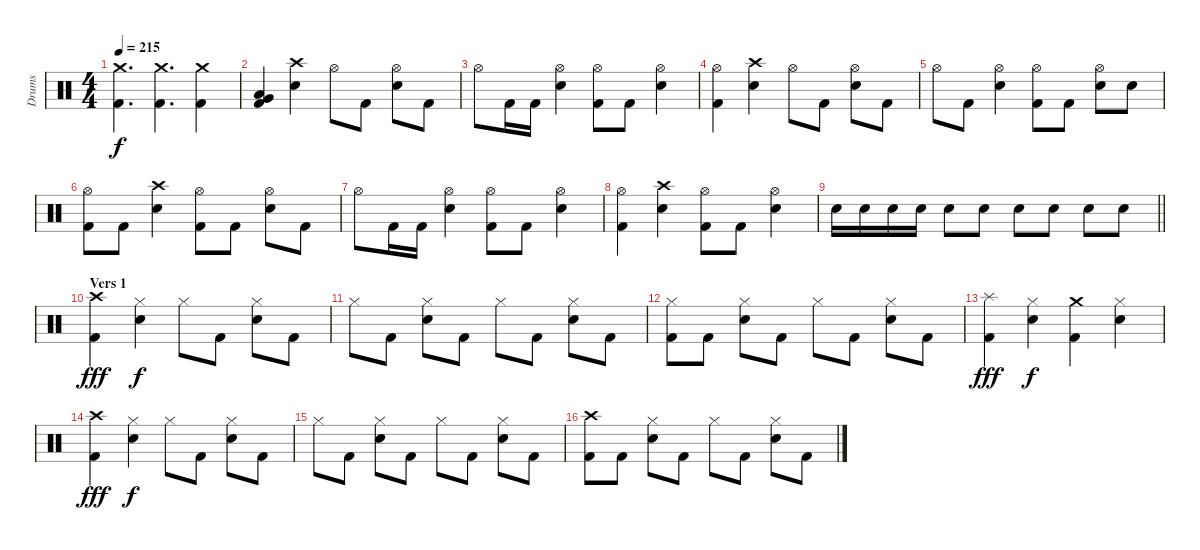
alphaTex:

\track ("Drums" "Drums") {instrument percussion}
\staff {score}
\articulation defaults
\ts (4 4)
\tempo 215
\clef neutral
\ks c
("Crash medium (hit)" "Kick (hit) 2").4{d dy f} ("Crash medium (hit)" "Kick (hit) 2").4{d} ("Crash medium (hit)" "Kick (hit) 2").4 |
("Low Floor Tom (hit)" "Very Low Tom (hit)" "Kick (hit) 2").4 ("Crash high (hit)" "Snare (hit) 2").4 "Hi-Hat (open)".8 "Kick (hit) 2".8 ("Hi-Hat (open)" "Snare (hit) 2").8 "Kick (hit) 2".8 |
"Hi-Hat (open)".8 "Kick (hit) 2".16 "Kick (hit) 2".16 ("Hi-Hat (open)" "Snare (hit) 2").4 ("Hi-Hat (open)" "Kick (hit) 2").8 "Kick (hit) 2".8 ("Hi-Hat (open)" "Snare (hit) 2").4 |
("Hi-Hat (open)" "Kick (hit) 2").4 ("Crash high (hit)" "Snare (hit) 2").4 "Hi-Hat (open)".8 "Kick (hit) 2".8 ("Hi-Hat (open)" "Snare (hit) 2").8 "Kick (hit) 2".8 |
"Hi-Hat (open)".8 "Kick (hit) 2".8 ("Hi-Hat (open)" "Snare (hit) 2").4 ("Hi-Hat (open)" "Kick (hit) 2").8 "Kick (hit) 2".8 ("Hi-Hat (open)" "Snare (hit) 2").8 "Snare (hit) 2".8 |
("Hi-Hat (open)" "Kick (hit) 2").8 "Kick (hit) 2".8 ("Crash high (hit)" "Snare (hit) 2").4 ("Hi-Hat (open)" "Kick (hit) 2").8 "Kick (hit) 2".8 ("Hi-Hat (open)" "Snare (hit) 2").8 "Kick (hit) 2".8 |
"Hi-Hat (open)".8 "Kick (hit) 2".16 "Kick (hit) 2".16 ("Hi-Hat (open)" "Snare (hit) 2").4 ("Hi-Hat (open)" "Kick (hit) 2").8 "Kick (hit) 2".8 ("Hi-Hat (open)" "Snare (hit) 2").4 |
("Hi-Hat (open)" "Kick (hit) 2").4 ("Crash high (hit)" "Snare (hit) 2").4 ("Hi-Hat (open)" "Kick (hit) 2").8 "Kick (hit) 2".8 ("Hi-Hat (open)" "Snare (hit) 2").4 |
\barLineRight lightlight "Snare (hit) 2".16 "Snare (hit) 2".16 "Snare (hit) 2".16 "Snare (hit) 2".16 "Snare (hit) 2".8 "Snare (hit) 2".8 "Snare (hit) 2".8 "Snare (hit) 2".8 "Snare (hit) 2".8 "Snare (hit) 2".8
|
\section ("" "Vers 1")
("Crash high (hit)" "Kick (hit) 2").4{dy fff} ("Hi-Hat (closed)" "Snare (hit) 2").4{dy f} "Hi-Hat (closed)".8 "Kick (hit) 2".8 ("Hi-Hat (closed)" "Snare (hit) 2").8 "Kick (hit) 2".8 |
"Hi-Hat (closed)".8 "Kick (hit) 2".8 ("Hi-Hat (closed)" "Snare (hit) 2").8 "Kick (hit) 2".8 "Hi-Hat (closed)".8 "Kick (hit) 2".8 ("Hi-Hat (closed)" "Snare (hit) 2").8 "Kick (hit) 2".8 |
("Hi-Hat (closed)" "Kick (hit) 2").8 "Kick (hit) 2".8 ("Hi-Hat (closed)" "Snare (hit) 2").8 "Kick (hit) 2".8 "Hi-Hat (closed)".8 "Kick (hit) 2".8 ("Hi-Hat (closed)" "Snare (hit) 2").8 "Kick (hit) 2".8 |
("Splash (hit)" "Kick (hit) 2").4{dy fff} ("Hi-Hat (closed)" "Snare (hit) 2").4{dy f} ("Crash medium (hit)" "Kick (hit) 2").4 ("Hi-Hat (closed)" "Snare (hit) 2").4 |
("Crash high (hit)" "Kick (hit) 2").4{dy fff} ("Hi-Hat (closed)" "Snare (hit) 2").4{dy f} "Hi-Hat (closed)".8 "Kick (hit) 2".8 ("Hi-Hat (closed)" "Snare (hit) 2").8 "Kick (hit) 2".8 |
"Hi-Hat (closed)".8 "Kick (hit) 2".8 ("Hi-Hat (closed)" "Snare (hit) 2").8 "Kick (hit) 2".8 "Hi-Hat (closed)".8 "Kick (hit) 2".8 ("Hi-Hat (closed)" "Snare (hit) 2").8 "Kick (hit) 2".8 |
("Crash high (hit)" "Kick (hit) 2").8 "Kick (hit) 2".8 ("Hi-Hat (closed)" "Snare (hit) 2").8 "Kick (hit) 2".8 "Hi-Hat (closed)".8 "Kick (hit) 2".8 ("Hi-Hat (closed)" "Snare (hit) 2").8 "Kick (hit) 2".8
